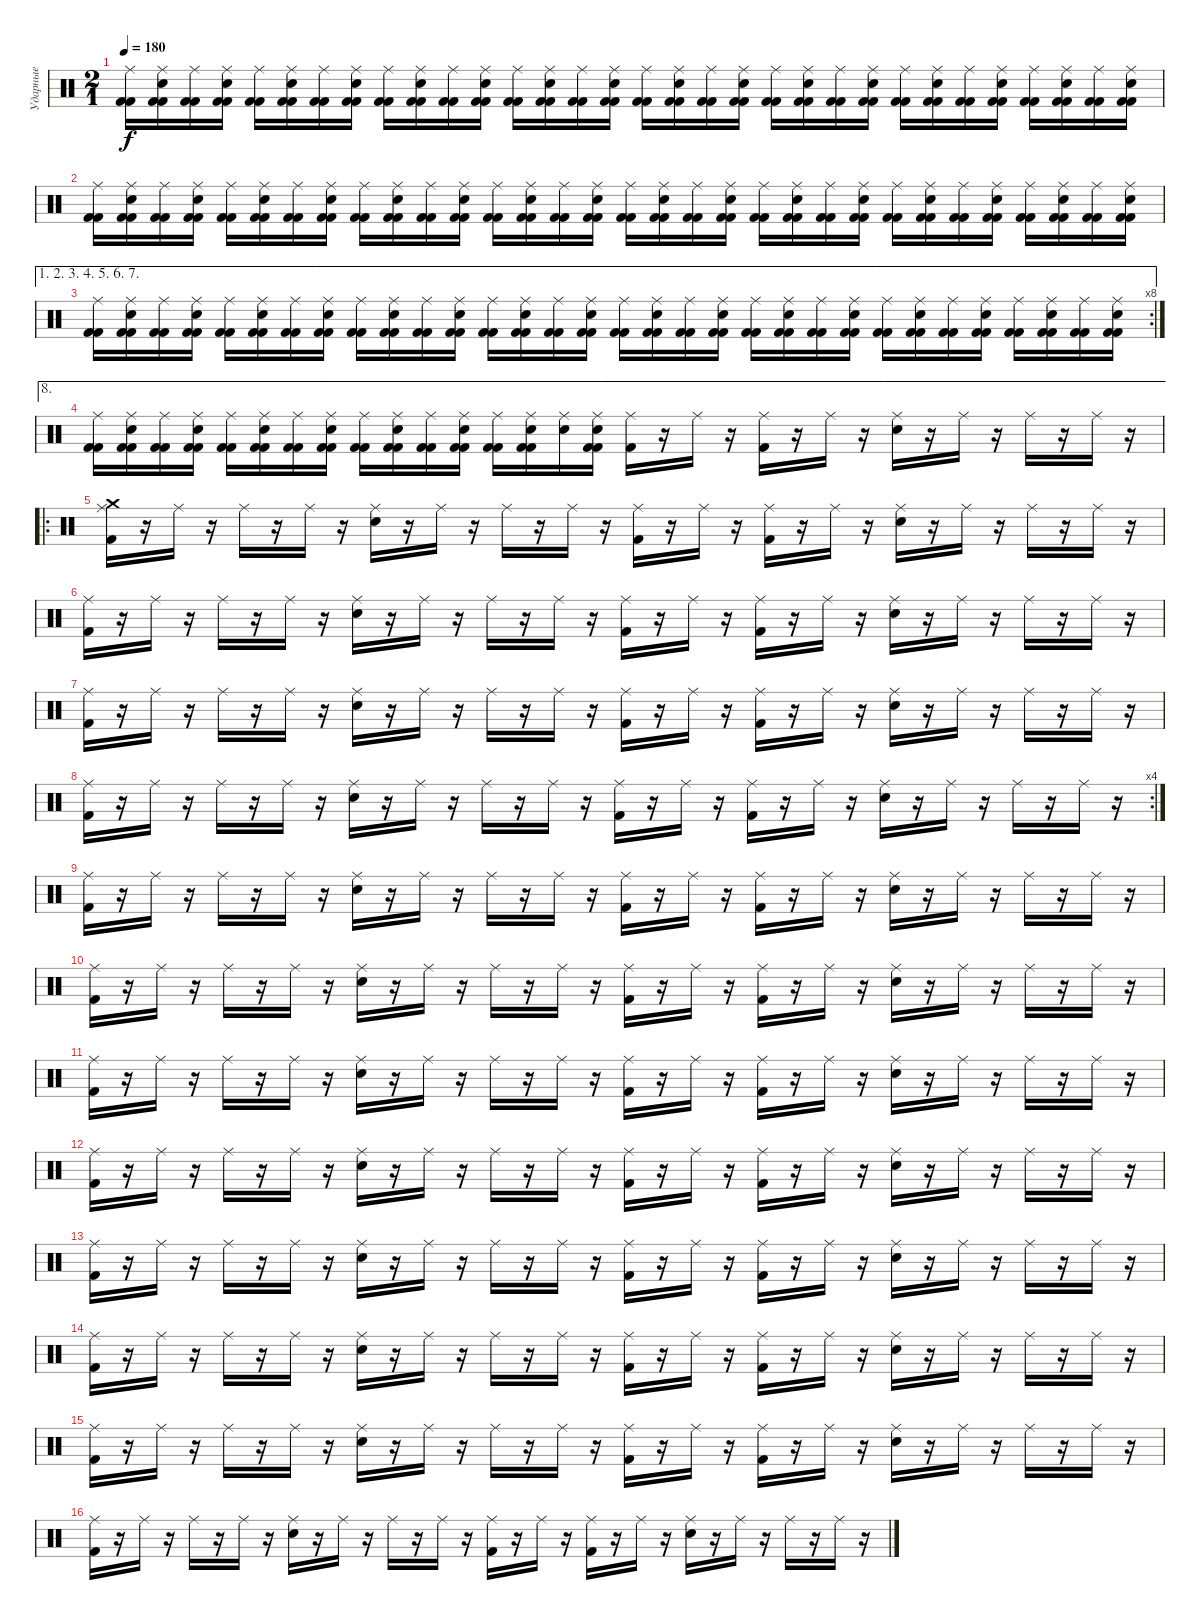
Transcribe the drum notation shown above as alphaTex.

\track ("Ударные" "Ударные") {instrument percussion}
\staff {score}
\articulation defaults
\ts (2 1)
\tempo 180
\clef neutral
\ks c
("Kick (hit) 2" "Ride (middle)" "Kick (hit) 2").16{dy f} ("Kick (hit) 2" "Ride (middle)" "Electric Snare (hit)" "Kick (hit) 2").16 ("Kick (hit) 2" "Ride (middle)" "Kick (hit) 2").16 ("Kick (hit) 2" "Ride (middle)" "Electric Snare (hit)" "Kick (hit) 2").16 ("Kick (hit) 2" "Ride (middle)" "Kick (hit) 2").16 ("Kick (hit) 2" "Ride (middle)" "Electric Snare (hit)" "Kick (hit) 2").16 ("Kick (hit) 2" "Ride (middle)" "Kick (hit) 2").16 ("Kick (hit) 2" "Ride (middle)" "Electric Snare (hit)" "Kick (hit) 2").16 ("Kick (hit) 2" "Ride (middle)" "Kick (hit) 2").16 ("Kick (hit) 2" "Ride (middle)" "Electric Snare (hit)" "Kick (hit) 2").16 ("Kick (hit) 2" "Ride (middle)" "Kick (hit) 2").16 ("Kick (hit) 2" "Ride (middle)" "Electric Snare (hit)" "Kick (hit) 2").16 ("Kick (hit) 2" "Ride (middle)" "Kick (hit) 2").16 ("Kick (hit) 2" "Ride (middle)" "Electric Snare (hit)" "Kick (hit) 2").16 ("Kick (hit) 2" "Ride (middle)" "Kick (hit) 2").16 ("Kick (hit) 2" "Ride (middle)" "Electric Snare (hit)" "Kick (hit) 2").16 ("Kick (hit) 2" "Ride (middle)" "Kick (hit) 2").16 ("Kick (hit) 2" "Ride (middle)" "Electric Snare (hit)" "Kick (hit) 2").16 ("Kick (hit) 2" "Ride (middle)" "Kick (hit) 2").16 ("Kick (hit) 2" "Ride (middle)" "Electric Snare (hit)" "Kick (hit) 2").16 ("Kick (hit) 2" "Ride (middle)" "Kick (hit) 2").16 ("Kick (hit) 2" "Ride (middle)" "Electric Snare (hit)" "Kick (hit) 2").16 ("Kick (hit) 2" "Ride (middle)" "Kick (hit) 2").16 ("Kick (hit) 2" "Ride (middle)" "Electric Snare (hit)" "Kick (hit) 2").16 ("Kick (hit) 2" "Ride (middle)" "Kick (hit) 2").16 ("Kick (hit) 2" "Ride (middle)" "Electric Snare (hit)" "Kick (hit) 2").16 ("Kick (hit) 2" "Ride (middle)" "Kick (hit) 2").16 ("Kick (hit) 2" "Ride (middle)" "Electric Snare (hit)" "Kick (hit) 2").16 ("Kick (hit) 2" "Ride (middle)" "Kick (hit) 2").16 ("Kick (hit) 2" "Ride (middle)" "Electric Snare (hit)" "Kick (hit) 2").16 ("Kick (hit) 2" "Ride (middle)" "Kick (hit) 2").16 ("Kick (hit) 2" "Ride (middle)" "Electric Snare (hit)" "Kick (hit) 2").16 |
("Kick (hit) 2" "Ride (middle)" "Kick (hit) 2").16 ("Kick (hit) 2" "Ride (middle)" "Electric Snare (hit)" "Kick (hit) 2").16 ("Kick (hit) 2" "Ride (middle)" "Kick (hit) 2").16 ("Kick (hit) 2" "Ride (middle)" "Electric Snare (hit)" "Kick (hit) 2").16 ("Kick (hit) 2" "Ride (middle)" "Kick (hit) 2").16 ("Kick (hit) 2" "Ride (middle)" "Electric Snare (hit)" "Kick (hit) 2").16 ("Kick (hit) 2" "Ride (middle)" "Kick (hit) 2").16 ("Kick (hit) 2" "Ride (middle)" "Electric Snare (hit)" "Kick (hit) 2").16 ("Kick (hit) 2" "Ride (middle)" "Kick (hit) 2").16 ("Kick (hit) 2" "Ride (middle)" "Electric Snare (hit)" "Kick (hit) 2").16 ("Kick (hit) 2" "Ride (middle)" "Kick (hit) 2").16 ("Kick (hit) 2" "Ride (middle)" "Electric Snare (hit)" "Kick (hit) 2").16 ("Kick (hit) 2" "Ride (middle)" "Kick (hit) 2").16 ("Kick (hit) 2" "Ride (middle)" "Electric Snare (hit)" "Kick (hit) 2").16 ("Kick (hit) 2" "Ride (middle)" "Kick (hit) 2").16 ("Kick (hit) 2" "Ride (middle)" "Electric Snare (hit)" "Kick (hit) 2").16 ("Kick (hit) 2" "Ride (middle)" "Kick (hit) 2").16 ("Kick (hit) 2" "Ride (middle)" "Electric Snare (hit)" "Kick (hit) 2").16 ("Kick (hit) 2" "Ride (middle)" "Kick (hit) 2").16 ("Kick (hit) 2" "Ride (middle)" "Electric Snare (hit)" "Kick (hit) 2").16 ("Kick (hit) 2" "Ride (middle)" "Kick (hit) 2").16 ("Kick (hit) 2" "Ride (middle)" "Electric Snare (hit)" "Kick (hit) 2").16 ("Kick (hit) 2" "Ride (middle)" "Kick (hit) 2").16 ("Kick (hit) 2" "Ride (middle)" "Electric Snare (hit)" "Kick (hit) 2").16 ("Kick (hit) 2" "Ride (middle)" "Kick (hit) 2").16 ("Kick (hit) 2" "Ride (middle)" "Electric Snare (hit)" "Kick (hit) 2").16 ("Kick (hit) 2" "Ride (middle)" "Kick (hit) 2").16 ("Kick (hit) 2" "Ride (middle)" "Electric Snare (hit)" "Kick (hit) 2").16 ("Kick (hit) 2" "Ride (middle)" "Kick (hit) 2").16 ("Kick (hit) 2" "Ride (middle)" "Electric Snare (hit)" "Kick (hit) 2").16 ("Kick (hit) 2" "Ride (middle)" "Kick (hit) 2").16 ("Kick (hit) 2" "Ride (middle)" "Electric Snare (hit)" "Kick (hit) 2").16 |
\ae (1 2 3 4 5 6 7)
\rc 8
("Kick (hit) 2" "Ride (middle)" "Kick (hit) 2").16 ("Kick (hit) 2" "Ride (middle)" "Electric Snare (hit)" "Kick (hit) 2").16 ("Kick (hit) 2" "Ride (middle)" "Kick (hit) 2").16 ("Kick (hit) 2" "Ride (middle)" "Electric Snare (hit)" "Kick (hit) 2").16 ("Kick (hit) 2" "Ride (middle)" "Kick (hit) 2").16 ("Kick (hit) 2" "Ride (middle)" "Electric Snare (hit)" "Kick (hit) 2").16 ("Kick (hit) 2" "Ride (middle)" "Kick (hit) 2").16 ("Kick (hit) 2" "Ride (middle)" "Electric Snare (hit)" "Kick (hit) 2").16 ("Kick (hit) 2" "Ride (middle)" "Kick (hit) 2").16 ("Kick (hit) 2" "Ride (middle)" "Electric Snare (hit)" "Kick (hit) 2").16 ("Kick (hit) 2" "Ride (middle)" "Kick (hit) 2").16 ("Kick (hit) 2" "Ride (middle)" "Electric Snare (hit)" "Kick (hit) 2").16 ("Kick (hit) 2" "Ride (middle)" "Kick (hit) 2").16 ("Kick (hit) 2" "Ride (middle)" "Electric Snare (hit)" "Kick (hit) 2").16 ("Kick (hit) 2" "Ride (middle)" "Kick (hit) 2").16 ("Kick (hit) 2" "Ride (middle)" "Electric Snare (hit)" "Kick (hit) 2").16 ("Kick (hit) 2" "Ride (middle)" "Kick (hit) 2").16 ("Kick (hit) 2" "Ride (middle)" "Electric Snare (hit)" "Kick (hit) 2").16 ("Kick (hit) 2" "Ride (middle)" "Kick (hit) 2").16 ("Kick (hit) 2" "Ride (middle)" "Electric Snare (hit)" "Kick (hit) 2").16 ("Kick (hit) 2" "Ride (middle)" "Kick (hit) 2").16 ("Kick (hit) 2" "Ride (middle)" "Electric Snare (hit)" "Kick (hit) 2").16 ("Kick (hit) 2" "Ride (middle)" "Kick (hit) 2").16 ("Kick (hit) 2" "Ride (middle)" "Electric Snare (hit)" "Kick (hit) 2").16 ("Kick (hit) 2" "Ride (middle)" "Kick (hit) 2").16 ("Kick (hit) 2" "Ride (middle)" "Electric Snare (hit)" "Kick (hit) 2").16 ("Kick (hit) 2" "Ride (middle)" "Kick (hit) 2").16 ("Kick (hit) 2" "Ride (middle)" "Electric Snare (hit)" "Kick (hit) 2").16 ("Kick (hit) 2" "Ride (middle)" "Kick (hit) 2").16 ("Kick (hit) 2" "Ride (middle)" "Electric Snare (hit)" "Kick (hit) 2").16 ("Kick (hit) 2" "Ride (middle)" "Kick (hit) 2").16 ("Kick (hit) 2" "Ride (middle)" "Electric Snare (hit)" "Kick (hit) 2").16 |
\ae 8
("Kick (hit) 2" "Ride (middle)" "Kick (hit) 2").16 ("Kick (hit) 2" "Ride (middle)" "Electric Snare (hit)" "Kick (hit) 2").16 ("Kick (hit) 2" "Ride (middle)" "Kick (hit) 2").16 ("Kick (hit) 2" "Ride (middle)" "Electric Snare (hit)" "Kick (hit) 2").16 ("Kick (hit) 2" "Ride (middle)" "Kick (hit) 2").16 ("Kick (hit) 2" "Ride (middle)" "Electric Snare (hit)" "Kick (hit) 2").16 ("Kick (hit) 2" "Ride (middle)" "Kick (hit) 2").16 ("Kick (hit) 2" "Ride (middle)" "Electric Snare (hit)" "Kick (hit) 2").16 ("Kick (hit) 2" "Ride (middle)" "Kick (hit) 2").16 ("Kick (hit) 2" "Ride (middle)" "Electric Snare (hit)" "Kick (hit) 2").16 ("Kick (hit) 2" "Ride (middle)" "Kick (hit) 2").16 ("Kick (hit) 2" "Ride (middle)" "Electric Snare (hit)" "Kick (hit) 2").16 ("Kick (hit) 2" "Ride (middle)" "Kick (hit) 2").16 ("Kick (hit) 2" "Ride (middle)" "Electric Snare (hit)" "Kick (hit) 2").16 ("Ride (middle)" "Electric Snare (hit)").16 ("Kick (hit) 2" "Ride (middle)" "Electric Snare (hit)" "Kick (hit) 2").16 ("Ride (middle)" "Kick (hit) 2").16 r.16 "Ride (middle)".16 r.16 ("Ride (middle)" "Kick (hit) 2").16 r.16 "Ride (middle)".16 r.16 ("Ride (middle)" "Electric Snare (hit)").16 r.16 "Ride (middle)".16 r.16 "Ride (middle)".16 r.16 "Ride (middle)".16 r.16 |
\ro
("Ride (middle)" "Crash medium (hit)" "Kick (hit) 2").16 r.16 "Ride (middle)".16 r.16 "Ride (middle)".16 r.16 "Ride (middle)".16 r.16 ("Ride (middle)" "Electric Snare (hit)").16 r.16 "Ride (middle)".16 r.16 "Ride (middle)".16 r.16 "Ride (middle)".16 r.16 ("Ride (middle)" "Kick (hit) 2").16 r.16 "Ride (middle)".16 r.16 ("Ride (middle)" "Kick (hit) 2").16 r.16 "Ride (middle)".16 r.16 ("Ride (middle)" "Electric Snare (hit)").16 r.16 "Ride (middle)".16 r.16 "Ride (middle)".16 r.16 "Ride (middle)".16 r.16 |
("Ride (middle)" "Kick (hit) 2").16 r.16 "Ride (middle)".16 r.16 "Ride (middle)".16 r.16 "Ride (middle)".16 r.16 ("Ride (middle)" "Electric Snare (hit)").16 r.16 "Ride (middle)".16 r.16 "Ride (middle)".16 r.16 "Ride (middle)".16 r.16 ("Ride (middle)" "Kick (hit) 2").16 r.16 "Ride (middle)".16 r.16 ("Ride (middle)" "Kick (hit) 2").16 r.16 "Ride (middle)".16 r.16 ("Ride (middle)" "Electric Snare (hit)").16 r.16 "Ride (middle)".16 r.16 "Ride (middle)".16 r.16 "Ride (middle)".16 r.16 |
("Ride (middle)" "Kick (hit) 2").16 r.16 "Ride (middle)".16 r.16 "Ride (middle)".16 r.16 "Ride (middle)".16 r.16 ("Ride (middle)" "Electric Snare (hit)").16 r.16 "Ride (middle)".16 r.16 "Ride (middle)".16 r.16 "Ride (middle)".16 r.16 ("Ride (middle)" "Kick (hit) 2").16 r.16 "Ride (middle)".16 r.16 ("Ride (middle)" "Kick (hit) 2").16 r.16 "Ride (middle)".16 r.16 ("Ride (middle)" "Electric Snare (hit)").16 r.16 "Ride (middle)".16 r.16 "Ride (middle)".16 r.16 "Ride (middle)".16 r.16 |
\rc 4
("Ride (middle)" "Kick (hit) 2").16 r.16 "Ride (middle)".16 r.16 "Ride (middle)".16 r.16 "Ride (middle)".16 r.16 ("Ride (middle)" "Electric Snare (hit)").16 r.16 "Ride (middle)".16 r.16 "Ride (middle)".16 r.16 "Ride (middle)".16 r.16 ("Ride (middle)" "Kick (hit) 2").16 r.16 "Ride (middle)".16 r.16 ("Ride (middle)" "Kick (hit) 2").16 r.16 "Ride (middle)".16 r.16 ("Ride (middle)" "Electric Snare (hit)").16 r.16 "Ride (middle)".16 r.16 "Ride (middle)".16 r.16 "Ride (middle)".16 r.16 |
("Ride (middle)" "Kick (hit) 2").16 r.16 "Ride (middle)".16 r.16 "Ride (middle)".16 r.16 "Ride (middle)".16 r.16 ("Ride (middle)" "Electric Snare (hit)").16 r.16 "Ride (middle)".16 r.16 "Ride (middle)".16 r.16 "Ride (middle)".16 r.16 ("Ride (middle)" "Kick (hit) 2").16 r.16 "Ride (middle)".16 r.16 ("Ride (middle)" "Kick (hit) 2").16 r.16 "Ride (middle)".16 r.16 ("Ride (middle)" "Electric Snare (hit)").16 r.16 "Ride (middle)".16 r.16 "Ride (middle)".16 r.16 "Ride (middle)".16 r.16 |
("Ride (middle)" "Kick (hit) 2").16 r.16 "Ride (middle)".16 r.16 "Ride (middle)".16 r.16 "Ride (middle)".16 r.16 ("Ride (middle)" "Electric Snare (hit)").16 r.16 "Ride (middle)".16 r.16 "Ride (middle)".16 r.16 "Ride (middle)".16 r.16 ("Ride (middle)" "Kick (hit) 2").16 r.16 "Ride (middle)".16 r.16 ("Ride (middle)" "Kick (hit) 2").16 r.16 "Ride (middle)".16 r.16 ("Ride (middle)" "Electric Snare (hit)").16 r.16 "Ride (middle)".16 r.16 "Ride (middle)".16 r.16 "Ride (middle)".16 r.16 |
("Ride (middle)" "Kick (hit) 2").16 r.16 "Ride (middle)".16 r.16 "Ride (middle)".16 r.16 "Ride (middle)".16 r.16 ("Ride (middle)" "Electric Snare (hit)").16 r.16 "Ride (middle)".16 r.16 "Ride (middle)".16 r.16 "Ride (middle)".16 r.16 ("Ride (middle)" "Kick (hit) 2").16 r.16 "Ride (middle)".16 r.16 ("Ride (middle)" "Kick (hit) 2").16 r.16 "Ride (middle)".16 r.16 ("Ride (middle)" "Electric Snare (hit)").16 r.16 "Ride (middle)".16 r.16 "Ride (middle)".16 r.16 "Ride (middle)".16 r.16 |
("Ride (middle)" "Kick (hit) 2").16 r.16 "Ride (middle)".16 r.16 "Ride (middle)".16 r.16 "Ride (middle)".16 r.16 ("Ride (middle)" "Electric Snare (hit)").16 r.16 "Ride (middle)".16 r.16 "Ride (middle)".16 r.16 "Ride (middle)".16 r.16 ("Ride (middle)" "Kick (hit) 2").16 r.16 "Ride (middle)".16 r.16 ("Ride (middle)" "Kick (hit) 2").16 r.16 "Ride (middle)".16 r.16 ("Ride (middle)" "Electric Snare (hit)").16 r.16 "Ride (middle)".16 r.16 "Ride (middle)".16 r.16 "Ride (middle)".16 r.16 |
("Ride (middle)" "Kick (hit) 2").16 r.16 "Ride (middle)".16 r.16 "Ride (middle)".16 r.16 "Ride (middle)".16 r.16 ("Ride (middle)" "Electric Snare (hit)").16 r.16 "Ride (middle)".16 r.16 "Ride (middle)".16 r.16 "Ride (middle)".16 r.16 ("Ride (middle)" "Kick (hit) 2").16 r.16 "Ride (middle)".16 r.16 ("Ride (middle)" "Kick (hit) 2").16 r.16 "Ride (middle)".16 r.16 ("Ride (middle)" "Electric Snare (hit)").16 r.16 "Ride (middle)".16 r.16 "Ride (middle)".16 r.16 "Ride (middle)".16 r.16 |
("Ride (middle)" "Kick (hit) 2").16 r.16 "Ride (middle)".16 r.16 "Ride (middle)".16 r.16 "Ride (middle)".16 r.16 ("Ride (middle)" "Electric Snare (hit)").16 r.16 "Ride (middle)".16 r.16 "Ride (middle)".16 r.16 "Ride (middle)".16 r.16 ("Ride (middle)" "Kick (hit) 2").16 r.16 "Ride (middle)".16 r.16 ("Ride (middle)" "Kick (hit) 2").16 r.16 "Ride (middle)".16 r.16 ("Ride (middle)" "Electric Snare (hit)").16 r.16 "Ride (middle)".16 r.16 "Ride (middle)".16 r.16 "Ride (middle)".16 r.16 |
("Ride (middle)" "Kick (hit) 2").16 r.16 "Ride (middle)".16 r.16 "Ride (middle)".16 r.16 "Ride (middle)".16 r.16 ("Ride (middle)" "Electric Snare (hit)").16 r.16 "Ride (middle)".16 r.16 "Ride (middle)".16 r.16 "Ride (middle)".16 r.16 ("Ride (middle)" "Kick (hit) 2").16 r.16 "Ride (middle)".16 r.16 ("Ride (middle)" "Kick (hit) 2").16 r.16 "Ride (middle)".16 r.16 ("Ride (middle)" "Electric Snare (hit)").16 r.16 "Ride (middle)".16 r.16 "Ride (middle)".16 r.16 "Ride (middle)".16 r.16 |
("Ride (middle)" "Kick (hit) 2").16 r.16 "Ride (middle)".16 r.16 "Ride (middle)".16 r.16 "Ride (middle)".16 r.16 ("Ride (middle)" "Electric Snare (hit)").16 r.16 "Ride (middle)".16 r.16 "Ride (middle)".16 r.16 "Ride (middle)".16 r.16 ("Ride (middle)" "Kick (hit) 2").16 r.16 "Ride (middle)".16 r.16 ("Ride (middle)" "Kick (hit) 2").16 r.16 "Ride (middle)".16 r.16 ("Ride (middle)" "Electric Snare (hit)").16 r.16 "Ride (middle)".16 r.16 "Ride (middle)".16 r.16 "Ride (middle)".16 r.16
